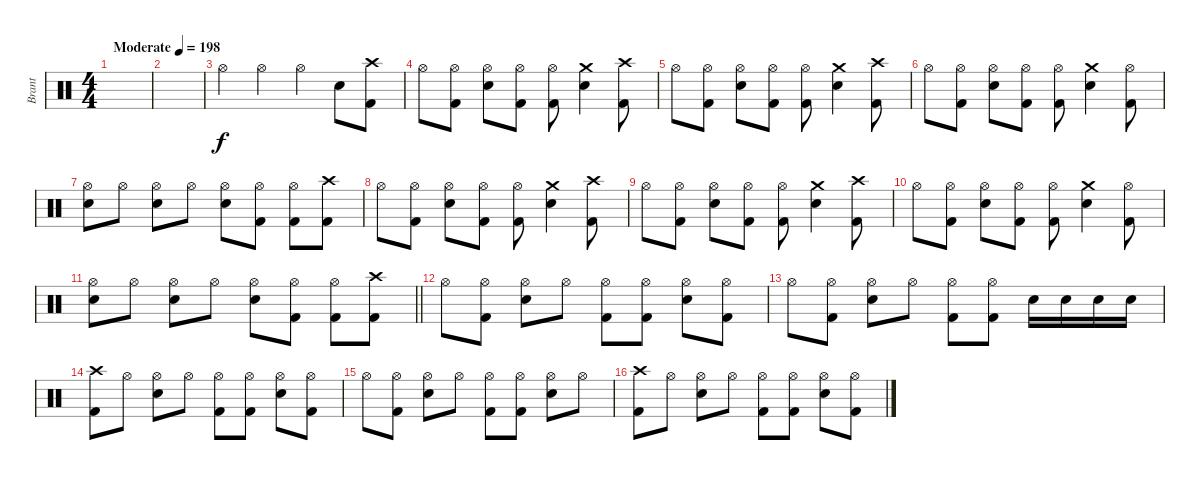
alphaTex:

\track ("Brant" "Brant") {instrument percussion}
\staff {score}
\articulation defaults
\ts (4 4)
\tempo (198 "Moderate")
\clef neutral
\ks c
|
|
"Hi-Hat (open)".4 "Hi-Hat (open)".4 "Hi-Hat (open)".4 "Electric Snare (hit)".8 ("Crash high (hit)" "Kick (hit) 2").8 |
"Hi-Hat (open)".8 ("Hi-Hat (open)" "Kick (hit) 2").8 ("Hi-Hat (open)" "Electric Snare (hit)").8 ("Hi-Hat (open)" "Kick (hit) 2").8 ("Hi-Hat (open)" "Kick (hit) 2").8 ("Crash medium (hit)" "Electric Snare (hit)").4 ("Crash high (hit)" "Kick (hit) 2").8 |
"Hi-Hat (open)".8 ("Hi-Hat (open)" "Kick (hit) 2").8 ("Hi-Hat (open)" "Electric Snare (hit)").8 ("Hi-Hat (open)" "Kick (hit) 2").8 ("Hi-Hat (open)" "Kick (hit) 2").8 ("Crash medium (hit)" "Electric Snare (hit)").4 ("Crash high (hit)" "Kick (hit) 2").8 |
"Hi-Hat (open)".8 ("Hi-Hat (open)" "Kick (hit) 2").8 ("Hi-Hat (open)" "Electric Snare (hit)").8 ("Hi-Hat (open)" "Kick (hit) 2").8 ("Hi-Hat (open)" "Kick (hit) 2").8 ("Crash medium (hit)" "Electric Snare (hit)").4 ("Hi-Hat (open)" "Kick (hit) 2").8 |
("Hi-Hat (open)" "Electric Snare (hit)").8 "Hi-Hat (open)".8 ("Hi-Hat (open)" "Electric Snare (hit)").8 "Hi-Hat (open)".8 ("Hi-Hat (open)" "Electric Snare (hit)").8 ("Hi-Hat (open)" "Kick (hit) 2").8 ("Hi-Hat (open)" "Kick (hit) 2").8 ("Crash high (hit)" "Kick (hit) 2").8 |
"Hi-Hat (open)".8 ("Hi-Hat (open)" "Kick (hit) 2").8 ("Hi-Hat (open)" "Electric Snare (hit)").8 ("Hi-Hat (open)" "Kick (hit) 2").8 ("Hi-Hat (open)" "Kick (hit) 2").8 ("Crash medium (hit)" "Electric Snare (hit)").4 ("Crash high (hit)" "Kick (hit) 2").8 |
"Hi-Hat (open)".8 ("Hi-Hat (open)" "Kick (hit) 2").8 ("Hi-Hat (open)" "Electric Snare (hit)").8 ("Hi-Hat (open)" "Kick (hit) 2").8 ("Hi-Hat (open)" "Kick (hit) 2").8 ("Crash medium (hit)" "Electric Snare (hit)").4 ("Crash high (hit)" "Kick (hit) 2").8 |
"Hi-Hat (open)".8 ("Hi-Hat (open)" "Kick (hit) 2").8 ("Hi-Hat (open)" "Electric Snare (hit)").8 ("Hi-Hat (open)" "Kick (hit) 2").8 ("Hi-Hat (open)" "Kick (hit) 2").8 ("Crash medium (hit)" "Electric Snare (hit)").4 ("Hi-Hat (open)" "Kick (hit) 2").8 |
\barLineRight lightlight
("Hi-Hat (open)" "Electric Snare (hit)").8 "Hi-Hat (open)".8 ("Hi-Hat (open)" "Electric Snare (hit)").8 "Hi-Hat (open)".8 ("Hi-Hat (open)" "Electric Snare (hit)").8 ("Hi-Hat (open)" "Kick (hit) 2").8 ("Hi-Hat (open)" "Kick (hit) 2").8 ("Crash high (hit)" "Kick (hit) 2").8 |
\section ("" "")
"Hi-Hat (open)".8 ("Hi-Hat (open)" "Kick (hit) 2").8 ("Hi-Hat (open)" "Electric Snare (hit)").8 "Hi-Hat (open)".8 ("Hi-Hat (open)" "Kick (hit) 2").8 ("Hi-Hat (open)" "Kick (hit) 2").8 ("Hi-Hat (open)" "Electric Snare (hit)").8 ("Hi-Hat (open)" "Kick (hit) 2").8 |
"Hi-Hat (open)".8 ("Hi-Hat (open)" "Kick (hit) 2").8 ("Hi-Hat (open)" "Electric Snare (hit)").8 "Hi-Hat (open)".8 ("Hi-Hat (open)" "Kick (hit) 2").8 ("Hi-Hat (open)" "Kick (hit) 2").8 "Electric Snare (hit)".16 "Electric Snare (hit)".16 "Electric Snare (hit)".16 "Electric Snare (hit)".16 |
("Crash high (hit)" "Kick (hit) 2").8 "Hi-Hat (open)".8 ("Hi-Hat (open)" "Electric Snare (hit)").8 "Hi-Hat (open)".8 ("Hi-Hat (open)" "Kick (hit) 2").8 ("Hi-Hat (open)" "Kick (hit) 2").8 ("Hi-Hat (open)" "Electric Snare (hit)").8 ("Hi-Hat (open)" "Kick (hit) 2").8 |
"Hi-Hat (open)".8 ("Hi-Hat (open)" "Kick (hit) 2").8 ("Hi-Hat (open)" "Electric Snare (hit)").8 "Hi-Hat (open)".8 ("Hi-Hat (open)" "Kick (hit) 2").8 ("Hi-Hat (open)" "Kick (hit) 2").8 ("Hi-Hat (open)" "Electric Snare (hit)").8 "Hi-Hat (open)".8 |
("Crash high (hit)" "Kick (hit) 2").8 "Hi-Hat (open)".8 ("Hi-Hat (open)" "Electric Snare (hit)").8 "Hi-Hat (open)".8 ("Hi-Hat (open)" "Kick (hit) 2").8 ("Hi-Hat (open)" "Kick (hit) 2").8 ("Hi-Hat (open)" "Electric Snare (hit)").8 ("Hi-Hat (open)" "Kick (hit) 2").8
